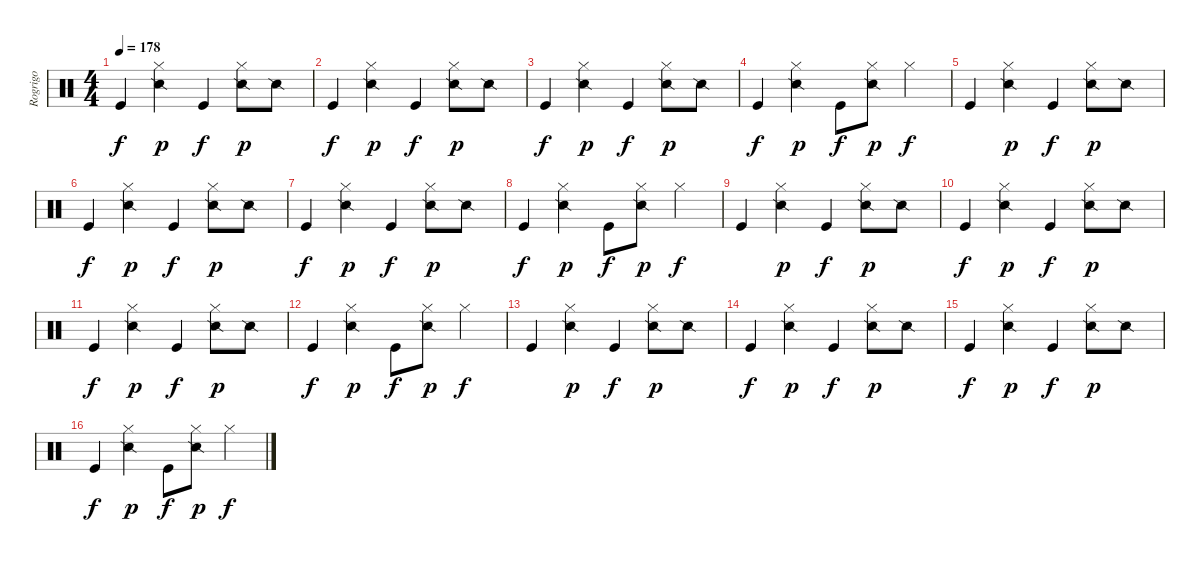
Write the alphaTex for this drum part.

\track ("Rogrigo" "Rogrigo") {instrument percussion}
\staff {score}
\articulation defaults
\ts (4 4)
\tempo 178
\clef neutral
\ks c "Kick (hit)".4{dy f}
("Hi-Hat (closed)" "Snare (side stick) 2").4{dy p} "Kick (hit)".4{dy f} ("Hi-Hat (closed)" "Snare (side stick) 2").8{dy p} "Snare (side stick) 2".8 |
"Kick (hit)".4{dy f} ("Hi-Hat (closed)" "Snare (side stick) 2").4{dy p} "Kick (hit)".4{dy f} ("Hi-Hat (closed)" "Snare (side stick) 2").8{dy p} "Snare (side stick) 2".8 |
"Kick (hit)".4{dy f} ("Hi-Hat (closed)" "Snare (side stick) 2").4{dy p} "Kick (hit)".4{dy f} ("Hi-Hat (closed)" "Snare (side stick) 2").8{dy p} "Snare (side stick) 2".8 |
"Kick (hit)".4{dy f} ("Hi-Hat (closed)" "Snare (side stick) 2").4{dy p} "Kick (hit)".8{dy f} ("Hi-Hat (closed)" "Snare (side stick) 2").8{dy p} "Hi-Hat (closed)".4{dy f} |
"Kick (hit)".4 ("Hi-Hat (closed)" "Snare (side stick) 2").4{dy p} "Kick (hit)".4{dy f} ("Hi-Hat (closed)" "Snare (side stick) 2").8{dy p} "Snare (side stick) 2".8 |
"Kick (hit)".4{dy f} ("Hi-Hat (closed)" "Snare (side stick) 2").4{dy p} "Kick (hit)".4{dy f} ("Hi-Hat (closed)" "Snare (side stick) 2").8{dy p} "Snare (side stick) 2".8 |
"Kick (hit)".4{dy f} ("Hi-Hat (closed)" "Snare (side stick) 2").4{dy p} "Kick (hit)".4{dy f} ("Hi-Hat (closed)" "Snare (side stick) 2").8{dy p} "Snare (side stick) 2".8 |
"Kick (hit)".4{dy f} ("Hi-Hat (closed)" "Snare (side stick) 2").4{dy p} "Kick (hit)".8{dy f} ("Hi-Hat (closed)" "Snare (side stick) 2").8{dy p} "Hi-Hat (closed)".4{dy f} |
"Kick (hit)".4 ("Hi-Hat (closed)" "Snare (side stick) 2").4{dy p} "Kick (hit)".4{dy f} ("Hi-Hat (closed)" "Snare (side stick) 2").8{dy p} "Snare (side stick) 2".8 |
"Kick (hit)".4{dy f} ("Hi-Hat (closed)" "Snare (side stick) 2").4{dy p} "Kick (hit)".4{dy f} ("Hi-Hat (closed)" "Snare (side stick) 2").8{dy p} "Snare (side stick) 2".8 |
"Kick (hit)".4{dy f} ("Hi-Hat (closed)" "Snare (side stick) 2").4{dy p} "Kick (hit)".4{dy f} ("Hi-Hat (closed)" "Snare (side stick) 2").8{dy p} "Snare (side stick) 2".8 |
"Kick (hit)".4{dy f} ("Hi-Hat (closed)" "Snare (side stick) 2").4{dy p} "Kick (hit)".8{dy f} ("Hi-Hat (closed)" "Snare (side stick) 2").8{dy p} "Hi-Hat (closed)".4{dy f} |
"Kick (hit)".4 ("Hi-Hat (closed)" "Snare (side stick) 2").4{dy p} "Kick (hit)".4{dy f} ("Hi-Hat (closed)" "Snare (side stick) 2").8{dy p} "Snare (side stick) 2".8 |
"Kick (hit)".4{dy f} ("Hi-Hat (closed)" "Snare (side stick) 2").4{dy p} "Kick (hit)".4{dy f} ("Hi-Hat (closed)" "Snare (side stick) 2").8{dy p} "Snare (side stick) 2".8 |
"Kick (hit)".4{dy f} ("Hi-Hat (closed)" "Snare (side stick) 2").4{dy p} "Kick (hit)".4{dy f} ("Hi-Hat (closed)" "Snare (side stick) 2").8{dy p} "Snare (side stick) 2".8 |
"Kick (hit)".4{dy f} ("Hi-Hat (closed)" "Snare (side stick) 2").4{dy p} "Kick (hit)".8{dy f} ("Hi-Hat (closed)" "Snare (side stick) 2").8{dy p} "Hi-Hat (closed)".4{dy f}
